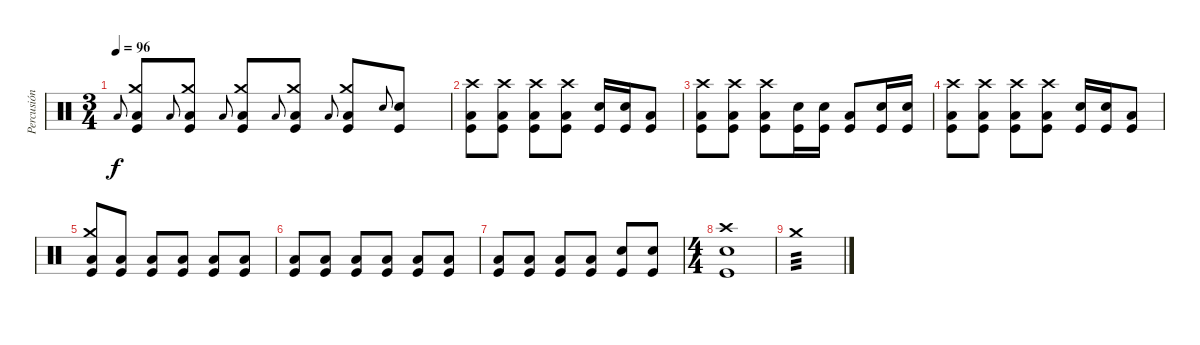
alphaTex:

\track ("Percusión" "Percusión") {instrument percussion}
\staff {score}
\articulation defaults
\ts (3 4)
\tempo 96
\clef neutral
\ks c "Low Floor Tom (hit)".8{gr onbeat dy f}
("Crash medium (hit)" "Low Floor Tom (hit)" "Kick (hit)").8 "Low Floor Tom (hit)".8{gr onbeat} ("Crash medium (hit)" "Low Floor Tom (hit)" "Kick (hit)").8 "Low Floor Tom (hit)".8{gr onbeat} ("Crash medium (hit)" "Low Floor Tom (hit)" "Kick (hit)").8 "Low Floor Tom (hit)".8{gr onbeat} ("Crash medium (hit)" "Low Floor Tom (hit)" "Kick (hit)").8 "Low Floor Tom (hit)".8{gr onbeat} ("Crash medium (hit)" "Low Floor Tom (hit)" "Kick (hit)").8 "Snare (hit) 2".8{gr onbeat} ("Snare (hit) 2" "Kick (hit)").8 |
("Crash high (hit)" "Low Floor Tom (hit)" "Kick (hit)").8 ("Crash high (hit)" "Low Floor Tom (hit)" "Kick (hit)").8 ("Crash high (hit)" "Low Floor Tom (hit)" "Kick (hit)").8 ("Crash high (hit)" "Low Floor Tom (hit)" "Kick (hit)").8 ("Snare (hit) 2" "Kick (hit)").16 ("Snare (hit) 2" "Kick (hit)").16 ("Low Floor Tom (hit)" "Kick (hit)").8 |
("Crash high (hit)" "Low Floor Tom (hit)" "Kick (hit)").8 ("Crash high (hit)" "Low Floor Tom (hit)" "Kick (hit)").8 ("Crash high (hit)" "Low Floor Tom (hit)" "Kick (hit)").8 ("Snare (hit) 2" "Kick (hit)").16 ("Snare (hit) 2" "Kick (hit)").16 ("Low Floor Tom (hit)" "Kick (hit)").8 ("Snare (hit) 2" "Kick (hit)").16 ("Snare (hit) 2" "Kick (hit)").16 |
("Crash high (hit)" "Low Floor Tom (hit)" "Kick (hit)").8 ("Crash high (hit)" "Low Floor Tom (hit)" "Kick (hit)").8 ("Crash high (hit)" "Low Floor Tom (hit)" "Kick (hit)").8 ("Crash high (hit)" "Low Floor Tom (hit)" "Kick (hit)").8 ("Snare (hit) 2" "Kick (hit)").16 ("Snare (hit) 2" "Kick (hit)").16 ("Low Floor Tom (hit)" "Kick (hit)").8 |
("Crash medium (hit)" "Low Floor Tom (hit)" "Kick (hit)").8 ("Low Floor Tom (hit)" "Kick (hit)").8 ("Low Floor Tom (hit)" "Kick (hit)").8 ("Low Floor Tom (hit)" "Kick (hit)").8 ("Low Floor Tom (hit)" "Kick (hit)").8 ("Low Floor Tom (hit)" "Kick (hit)").8 |
("Low Floor Tom (hit)" "Kick (hit)").8 ("Low Floor Tom (hit)" "Kick (hit)").8 ("Low Floor Tom (hit)" "Kick (hit)").8 ("Low Floor Tom (hit)" "Kick (hit)").8 ("Low Floor Tom (hit)" "Kick (hit)").8 ("Low Floor Tom (hit)" "Kick (hit)").8 |
("Low Floor Tom (hit)" "Kick (hit)").8 ("Low Floor Tom (hit)" "Kick (hit)").8 ("Low Floor Tom (hit)" "Kick (hit)").8 ("Low Floor Tom (hit)" "Kick (hit)").8 ("Snare (hit) 2" "Kick (hit)").8 ("Snare (hit) 2" "Kick (hit)").8 |
\ts (4 4)
("Crash high (hit)" "Snare (hit) 2" "Kick (hit)").1 |
"Crash medium (hit)".1{tp 3}
